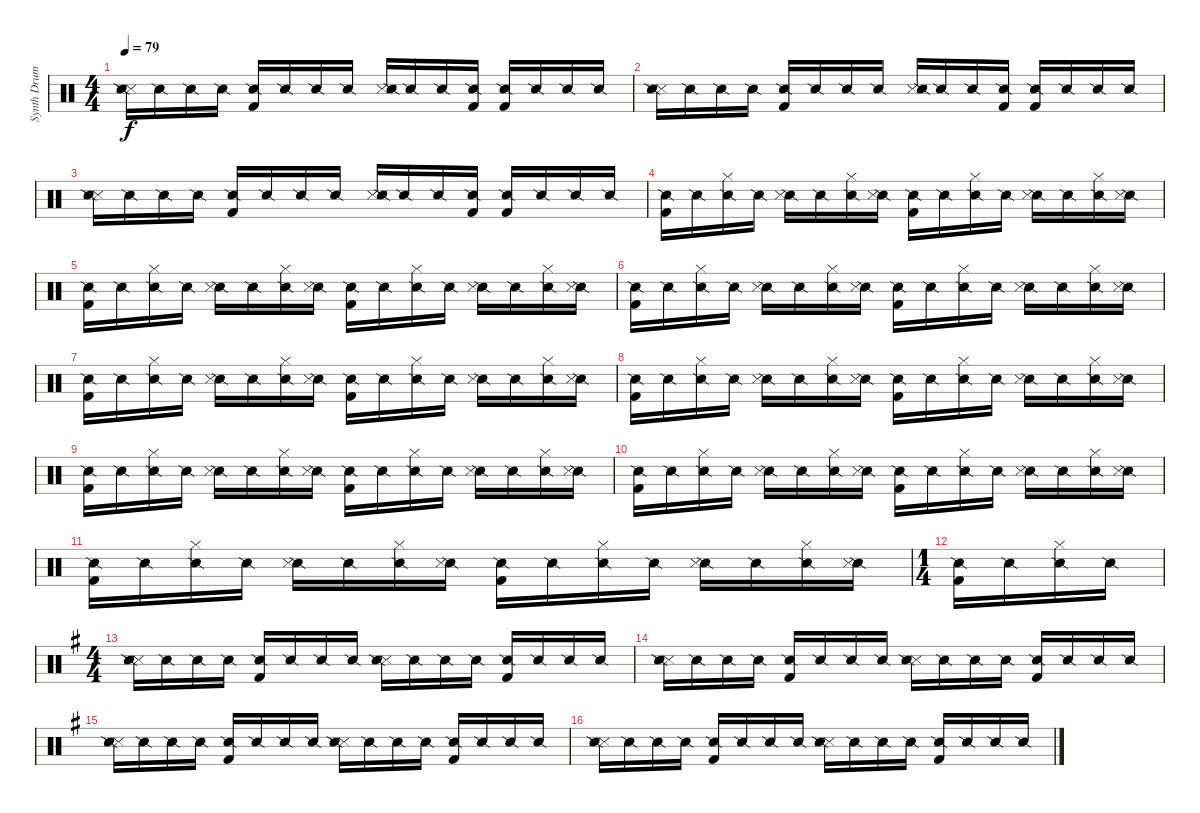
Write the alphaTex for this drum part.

\track ("Synth Drums" "Synth Drum") {instrument percussion}
\staff {score}
\articulation defaults
\ts (4 4)
\tempo 79
\clef neutral
\ks aminor
("Metronome (hit)" "Snare (side stick) 2" "Snare (side stick) 3").16{dy f} "Snare (side stick) 2".16 "Snare (side stick) 2".16 "Snare (side stick) 2".16 ("Kick (hit) 2" "Snare (side stick) 2").16 "Snare (side stick) 2".16 "Snare (side stick) 2".16 "Snare (side stick) 2".16 ("Metronome (hit)" "Snare (side stick) 2" "Snare (side stick) 3").16 "Snare (side stick) 2".16 "Snare (side stick) 2".16 ("Kick (hit) 2" "Snare (side stick) 2").16 ("Kick (hit) 2" "Snare (side stick) 2").16 "Snare (side stick) 2".16 "Snare (side stick) 2".16 "Snare (side stick) 2".16 |
("Metronome (hit)" "Snare (side stick) 2" "Snare (side stick) 3").16 "Snare (side stick) 2".16 "Snare (side stick) 2".16 "Snare (side stick) 2".16 ("Kick (hit) 2" "Snare (side stick) 2").16 "Snare (side stick) 2".16 "Snare (side stick) 2".16 "Snare (side stick) 2".16 ("Metronome (hit)" "Snare (side stick) 2" "Snare (side stick) 3").16 "Snare (side stick) 2".16 "Snare (side stick) 2".16 ("Kick (hit) 2" "Snare (side stick) 2").16 ("Kick (hit) 2" "Snare (side stick) 2").16 "Snare (side stick) 2".16 "Snare (side stick) 2".16 "Snare (side stick) 2".16 |
("Metronome (hit)" "Snare (side stick) 2" "Snare (side stick) 3").16 "Snare (side stick) 2".16 "Snare (side stick) 2".16 "Snare (side stick) 2".16 ("Kick (hit) 2" "Snare (side stick) 2").16 "Snare (side stick) 2".16 "Snare (side stick) 2".16 "Snare (side stick) 2".16 ("Metronome (hit)" "Snare (side stick) 2" "Snare (side stick) 3").16 "Snare (side stick) 2".16 "Snare (side stick) 2".16 ("Kick (hit) 2" "Snare (side stick) 2").16 ("Kick (hit) 2" "Snare (side stick) 2").16 "Snare (side stick) 2".16 "Snare (side stick) 2".16 "Snare (side stick) 2".16 |
("Snare (side stick) 2" "Kick (hit) 2").16 "Snare (side stick) 2".16 ("Snare (side stick) 2" "Hi-Hat (closed)").16 "Snare (side stick) 2".16 ("Snare (side stick) 2" "Snare (side stick) 3").16 "Snare (side stick) 2".16 ("Snare (side stick) 2" "Hi-Hat (closed)").16 ("Snare (side stick) 2" "Snare (side stick) 3").16 ("Snare (side stick) 2" "Kick (hit) 2").16 "Snare (side stick) 2".16 ("Snare (side stick) 2" "Hi-Hat (closed)").16 "Snare (side stick) 2".16 ("Snare (side stick) 2" "Snare (side stick) 3").16 "Snare (side stick) 2".16 ("Snare (side stick) 2" "Hi-Hat (closed)").16 ("Snare (side stick) 2" "Snare (side stick) 3").16 |
("Snare (side stick) 2" "Kick (hit) 2").16 "Snare (side stick) 2".16 ("Snare (side stick) 2" "Hi-Hat (closed)").16 "Snare (side stick) 2".16 ("Snare (side stick) 2" "Snare (side stick) 3").16 "Snare (side stick) 2".16 ("Snare (side stick) 2" "Hi-Hat (closed)").16 ("Snare (side stick) 2" "Snare (side stick) 3").16 ("Snare (side stick) 2" "Kick (hit) 2").16 "Snare (side stick) 2".16 ("Snare (side stick) 2" "Hi-Hat (closed)").16 "Snare (side stick) 2".16 ("Snare (side stick) 2" "Snare (side stick) 3").16 "Snare (side stick) 2".16 ("Snare (side stick) 2" "Hi-Hat (closed)").16 ("Snare (side stick) 2" "Snare (side stick) 3").16 |
("Snare (side stick) 2" "Kick (hit) 2").16 "Snare (side stick) 2".16 ("Snare (side stick) 2" "Hi-Hat (closed)").16 "Snare (side stick) 2".16 ("Snare (side stick) 2" "Snare (side stick) 3").16 "Snare (side stick) 2".16 ("Snare (side stick) 2" "Hi-Hat (closed)").16 ("Snare (side stick) 2" "Snare (side stick) 3").16 ("Snare (side stick) 2" "Kick (hit) 2").16 "Snare (side stick) 2".16 ("Snare (side stick) 2" "Hi-Hat (closed)").16 "Snare (side stick) 2".16 ("Snare (side stick) 2" "Snare (side stick) 3").16 "Snare (side stick) 2".16 ("Snare (side stick) 2" "Hi-Hat (closed)").16 ("Snare (side stick) 2" "Snare (side stick) 3").16 |
("Snare (side stick) 2" "Kick (hit) 2").16 "Snare (side stick) 2".16 ("Snare (side stick) 2" "Hi-Hat (closed)").16 "Snare (side stick) 2".16 ("Snare (side stick) 2" "Snare (side stick) 3").16 "Snare (side stick) 2".16 ("Snare (side stick) 2" "Hi-Hat (closed)").16 ("Snare (side stick) 2" "Snare (side stick) 3").16 ("Snare (side stick) 2" "Kick (hit) 2").16 "Snare (side stick) 2".16 ("Snare (side stick) 2" "Hi-Hat (closed)").16 "Snare (side stick) 2".16 ("Snare (side stick) 2" "Snare (side stick) 3").16 "Snare (side stick) 2".16 ("Snare (side stick) 2" "Hi-Hat (closed)").16 ("Snare (side stick) 2" "Snare (side stick) 3").16 |
("Snare (side stick) 2" "Kick (hit) 2").16 "Snare (side stick) 2".16 ("Snare (side stick) 2" "Hi-Hat (closed)").16 "Snare (side stick) 2".16 ("Snare (side stick) 2" "Snare (side stick) 3").16 "Snare (side stick) 2".16 ("Snare (side stick) 2" "Hi-Hat (closed)").16 ("Snare (side stick) 2" "Snare (side stick) 3").16 ("Snare (side stick) 2" "Kick (hit) 2").16 "Snare (side stick) 2".16 ("Snare (side stick) 2" "Hi-Hat (closed)").16 "Snare (side stick) 2".16 ("Snare (side stick) 2" "Snare (side stick) 3").16 "Snare (side stick) 2".16 ("Snare (side stick) 2" "Hi-Hat (closed)").16 ("Snare (side stick) 2" "Snare (side stick) 3").16 |
("Snare (side stick) 2" "Kick (hit) 2").16 "Snare (side stick) 2".16 ("Snare (side stick) 2" "Hi-Hat (closed)").16 "Snare (side stick) 2".16 ("Snare (side stick) 2" "Snare (side stick) 3").16 "Snare (side stick) 2".16 ("Snare (side stick) 2" "Hi-Hat (closed)").16 ("Snare (side stick) 2" "Snare (side stick) 3").16 ("Snare (side stick) 2" "Kick (hit) 2").16 "Snare (side stick) 2".16 ("Snare (side stick) 2" "Hi-Hat (closed)").16 "Snare (side stick) 2".16 ("Snare (side stick) 2" "Snare (side stick) 3").16 "Snare (side stick) 2".16 ("Snare (side stick) 2" "Hi-Hat (closed)").16 ("Snare (side stick) 2" "Snare (side stick) 3").16 |
("Snare (side stick) 2" "Kick (hit) 2").16 "Snare (side stick) 2".16 ("Snare (side stick) 2" "Hi-Hat (closed)").16 "Snare (side stick) 2".16 ("Snare (side stick) 2" "Snare (side stick) 3").16 "Snare (side stick) 2".16 ("Snare (side stick) 2" "Hi-Hat (closed)").16 ("Snare (side stick) 2" "Snare (side stick) 3").16 ("Snare (side stick) 2" "Kick (hit) 2").16 "Snare (side stick) 2".16 ("Snare (side stick) 2" "Hi-Hat (closed)").16 "Snare (side stick) 2".16 ("Snare (side stick) 2" "Snare (side stick) 3").16 "Snare (side stick) 2".16 ("Snare (side stick) 2" "Hi-Hat (closed)").16 ("Snare (side stick) 2" "Snare (side stick) 3").16 |
("Snare (side stick) 2" "Kick (hit) 2").16 "Snare (side stick) 2".16 ("Snare (side stick) 2" "Hi-Hat (closed)").16 "Snare (side stick) 2".16 ("Snare (side stick) 2" "Snare (side stick) 3").16 "Snare (side stick) 2".16 ("Snare (side stick) 2" "Hi-Hat (closed)").16 ("Snare (side stick) 2" "Snare (side stick) 3").16 ("Snare (side stick) 2" "Kick (hit) 2").16 "Snare (side stick) 2".16 ("Snare (side stick) 2" "Hi-Hat (closed)").16 "Snare (side stick) 2".16 ("Snare (side stick) 2" "Snare (side stick) 3").16 "Snare (side stick) 2".16 ("Snare (side stick) 2" "Hi-Hat (closed)").16 ("Snare (side stick) 2" "Snare (side stick) 3").16 |
\ts (1 4)
("Snare (side stick) 2" "Kick (hit) 2").16 "Snare (side stick) 2".16 ("Snare (side stick) 2" "Hi-Hat (closed)").16 "Snare (side stick) 2".16 |
\ts (4 4)
\ks g
("Metronome (hit)" "Snare (side stick) 2" "Snare (side stick) 3").16 "Snare (side stick) 2".16 "Snare (side stick) 2".16 "Snare (side stick) 2".16 ("Kick (hit) 2" "Snare (side stick) 2").16 "Snare (side stick) 2".16 "Snare (side stick) 2".16 "Snare (side stick) 2".16 ("Metronome (hit)" "Snare (side stick) 2" "Snare (side stick) 3").16 "Snare (side stick) 2".16 "Snare (side stick) 2".16 "Snare (side stick) 2".16 ("Kick (hit) 2" "Snare (side stick) 2").16 "Snare (side stick) 2".16 "Snare (side stick) 2".16 "Snare (side stick) 2".16 |
("Metronome (hit)" "Snare (side stick) 2" "Snare (side stick) 3").16 "Snare (side stick) 2".16 "Snare (side stick) 2".16 "Snare (side stick) 2".16 ("Kick (hit) 2" "Snare (side stick) 2").16 "Snare (side stick) 2".16 "Snare (side stick) 2".16 "Snare (side stick) 2".16 ("Metronome (hit)" "Snare (side stick) 2" "Snare (side stick) 3").16 "Snare (side stick) 2".16 "Snare (side stick) 2".16 "Snare (side stick) 2".16 ("Kick (hit) 2" "Snare (side stick) 2").16 "Snare (side stick) 2".16 "Snare (side stick) 2".16 "Snare (side stick) 2".16 |
("Metronome (hit)" "Snare (side stick) 2" "Snare (side stick) 3").16 "Snare (side stick) 2".16 "Snare (side stick) 2".16 "Snare (side stick) 2".16 ("Kick (hit) 2" "Snare (side stick) 2").16 "Snare (side stick) 2".16 "Snare (side stick) 2".16 "Snare (side stick) 2".16 ("Metronome (hit)" "Snare (side stick) 2" "Snare (side stick) 3").16 "Snare (side stick) 2".16 "Snare (side stick) 2".16 "Snare (side stick) 2".16 ("Kick (hit) 2" "Snare (side stick) 2").16 "Snare (side stick) 2".16 "Snare (side stick) 2".16 "Snare (side stick) 2".16 |
("Metronome (hit)" "Snare (side stick) 2" "Snare (side stick) 3").16 "Snare (side stick) 2".16 "Snare (side stick) 2".16 "Snare (side stick) 2".16 ("Kick (hit) 2" "Snare (side stick) 2").16 "Snare (side stick) 2".16 "Snare (side stick) 2".16 "Snare (side stick) 2".16 ("Metronome (hit)" "Snare (side stick) 2" "Snare (side stick) 3").16 "Snare (side stick) 2".16 "Snare (side stick) 2".16 "Snare (side stick) 2".16 ("Kick (hit) 2" "Snare (side stick) 2").16 "Snare (side stick) 2".16 "Snare (side stick) 2".16 "Snare (side stick) 2".16
